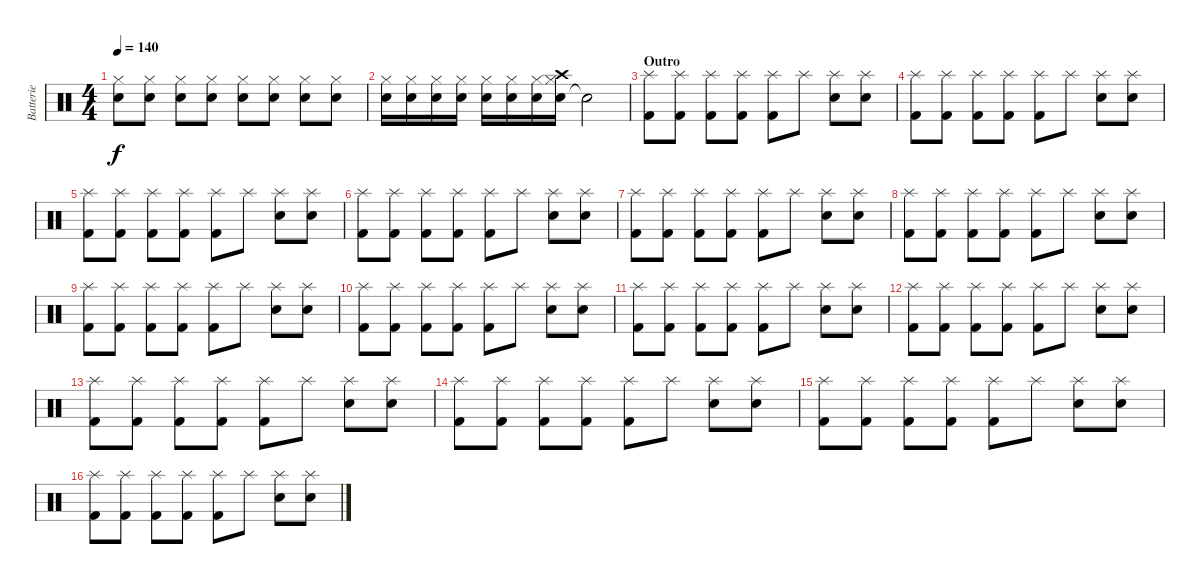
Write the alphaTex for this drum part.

\track ("Batterie" "Batterie") {instrument percussion}
\staff {score}
\articulation defaults
\ts (4 4)
\tempo 140
\clef neutral
\ks c
("Snare (hit) 2" "Hi-Hat (closed)").8{dy f} ("Snare (hit) 2" "Hi-Hat (closed)").8 ("Snare (hit) 2" "Hi-Hat (closed)").8 ("Snare (hit) 2" "Hi-Hat (closed)").8 ("Snare (hit) 2" "Hi-Hat (closed)").8 ("Snare (hit) 2" "Hi-Hat (closed)").8 ("Snare (hit) 2" "Hi-Hat (closed)").8 ("Snare (hit) 2" "Hi-Hat (closed)").8 |
("Snare (hit) 2" "Hi-Hat (closed)").16 ("Snare (hit) 2" "Hi-Hat (closed)").16 ("Snare (hit) 2" "Hi-Hat (closed)").16 ("Snare (hit) 2" "Hi-Hat (closed)").16 ("Snare (hit) 2" "Hi-Hat (closed)").16 ("Snare (hit) 2" "Hi-Hat (closed)").16 ("Snare (hit) 2" "Hi-Hat (closed)").16 ("Snare (hit) 2" "Hi-Hat (closed)" "Crash high (hit)").16 "Snare (hit)"{t}.2 |
\section ("" "Outro")
("Splash (hit)" "Kick (hit) 2").8 ("Splash (hit)" "Kick (hit) 2").8 ("Splash (hit)" "Kick (hit) 2").8 ("Splash (hit)" "Kick (hit) 2").8 ("Splash (hit)" "Kick (hit) 2").8 "Splash (hit)".8 ("Splash (hit)" "Snare (hit) 2").8 ("Splash (hit)" "Snare (hit) 2").8 |
("Splash (hit)" "Kick (hit) 2").8 ("Splash (hit)" "Kick (hit) 2").8 ("Splash (hit)" "Kick (hit) 2").8 ("Splash (hit)" "Kick (hit) 2").8 ("Splash (hit)" "Kick (hit) 2").8 "Splash (hit)".8 ("Splash (hit)" "Snare (hit) 2").8 ("Splash (hit)" "Snare (hit) 2").8 |
("Splash (hit)" "Kick (hit) 2").8 ("Splash (hit)" "Kick (hit) 2").8 ("Splash (hit)" "Kick (hit) 2").8 ("Splash (hit)" "Kick (hit) 2").8 ("Splash (hit)" "Kick (hit) 2").8 "Splash (hit)".8 ("Splash (hit)" "Snare (hit) 2").8 ("Splash (hit)" "Snare (hit) 2").8 |
("Splash (hit)" "Kick (hit) 2").8 ("Splash (hit)" "Kick (hit) 2").8 ("Splash (hit)" "Kick (hit) 2").8 ("Splash (hit)" "Kick (hit) 2").8 ("Splash (hit)" "Kick (hit) 2").8 "Splash (hit)".8 ("Splash (hit)" "Snare (hit) 2").8 ("Splash (hit)" "Snare (hit) 2").8 |
("Splash (hit)" "Kick (hit) 2").8 ("Splash (hit)" "Kick (hit) 2").8 ("Splash (hit)" "Kick (hit) 2").8 ("Splash (hit)" "Kick (hit) 2").8 ("Splash (hit)" "Kick (hit) 2").8 "Splash (hit)".8 ("Splash (hit)" "Snare (hit) 2").8 ("Splash (hit)" "Snare (hit) 2").8 |
("Splash (hit)" "Kick (hit) 2").8 ("Splash (hit)" "Kick (hit) 2").8 ("Splash (hit)" "Kick (hit) 2").8 ("Splash (hit)" "Kick (hit) 2").8 ("Splash (hit)" "Kick (hit) 2").8 "Splash (hit)".8 ("Splash (hit)" "Snare (hit) 2").8 ("Splash (hit)" "Snare (hit) 2").8 |
("Splash (hit)" "Kick (hit) 2").8 ("Splash (hit)" "Kick (hit) 2").8 ("Splash (hit)" "Kick (hit) 2").8 ("Splash (hit)" "Kick (hit) 2").8 ("Splash (hit)" "Kick (hit) 2").8 "Splash (hit)".8 ("Splash (hit)" "Snare (hit) 2").8 ("Splash (hit)" "Snare (hit) 2").8 |
("Splash (hit)" "Kick (hit) 2").8 ("Splash (hit)" "Kick (hit) 2").8 ("Splash (hit)" "Kick (hit) 2").8 ("Splash (hit)" "Kick (hit) 2").8 ("Splash (hit)" "Kick (hit) 2").8 "Splash (hit)".8 ("Splash (hit)" "Snare (hit) 2").8 ("Splash (hit)" "Snare (hit) 2").8 |
("Splash (hit)" "Kick (hit) 2").8 ("Splash (hit)" "Kick (hit) 2").8 ("Splash (hit)" "Kick (hit) 2").8 ("Splash (hit)" "Kick (hit) 2").8 ("Splash (hit)" "Kick (hit) 2").8 "Splash (hit)".8 ("Splash (hit)" "Snare (hit) 2").8 ("Splash (hit)" "Snare (hit) 2").8 |
("Splash (hit)" "Kick (hit) 2").8 ("Splash (hit)" "Kick (hit) 2").8 ("Splash (hit)" "Kick (hit) 2").8 ("Splash (hit)" "Kick (hit) 2").8 ("Splash (hit)" "Kick (hit) 2").8 "Splash (hit)".8 ("Splash (hit)" "Snare (hit) 2").8 ("Splash (hit)" "Snare (hit) 2").8 |
("Splash (hit)" "Kick (hit) 2").8 ("Splash (hit)" "Kick (hit) 2").8 ("Splash (hit)" "Kick (hit) 2").8 ("Splash (hit)" "Kick (hit) 2").8 ("Splash (hit)" "Kick (hit) 2").8 "Splash (hit)".8 ("Splash (hit)" "Snare (hit) 2").8 ("Splash (hit)" "Snare (hit) 2").8 |
("Splash (hit)" "Kick (hit) 2").8 ("Splash (hit)" "Kick (hit) 2").8 ("Splash (hit)" "Kick (hit) 2").8 ("Splash (hit)" "Kick (hit) 2").8 ("Splash (hit)" "Kick (hit) 2").8 "Splash (hit)".8 ("Splash (hit)" "Snare (hit) 2").8 ("Splash (hit)" "Snare (hit) 2").8 |
("Splash (hit)" "Kick (hit) 2").8 ("Splash (hit)" "Kick (hit) 2").8 ("Splash (hit)" "Kick (hit) 2").8 ("Splash (hit)" "Kick (hit) 2").8 ("Splash (hit)" "Kick (hit) 2").8 "Splash (hit)".8 ("Splash (hit)" "Snare (hit) 2").8 ("Splash (hit)" "Snare (hit) 2").8 |
("Splash (hit)" "Kick (hit) 2").8 ("Splash (hit)" "Kick (hit) 2").8 ("Splash (hit)" "Kick (hit) 2").8 ("Splash (hit)" "Kick (hit) 2").8 ("Splash (hit)" "Kick (hit) 2").8 "Splash (hit)".8 ("Splash (hit)" "Snare (hit) 2").8 ("Splash (hit)" "Snare (hit) 2").8
